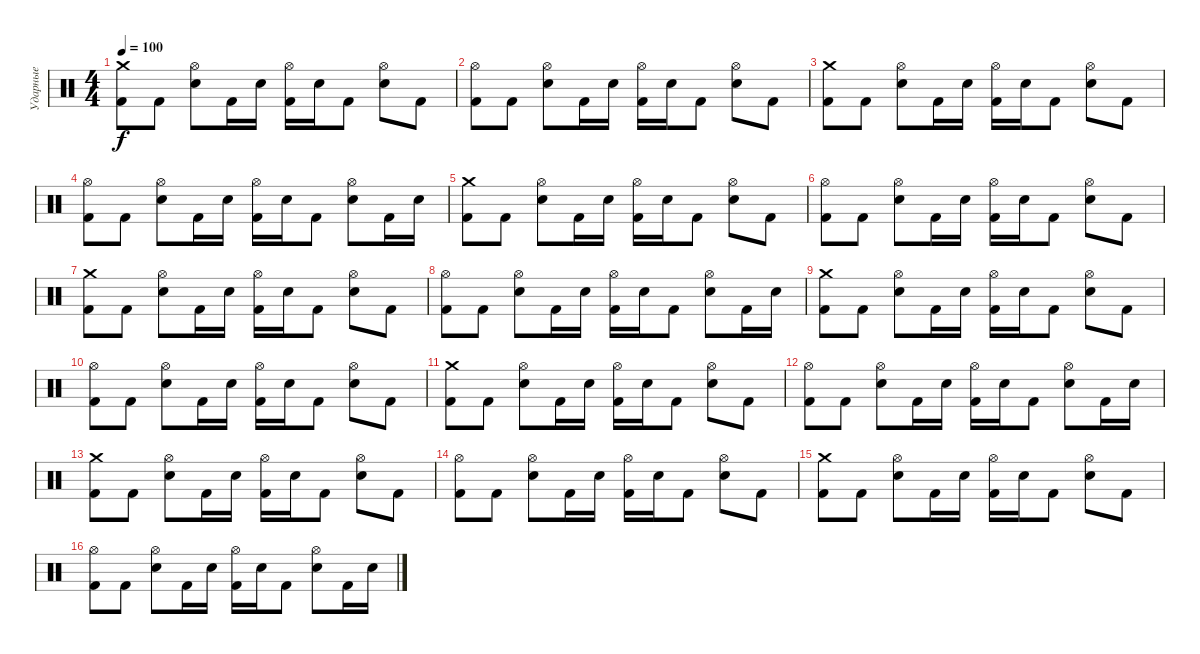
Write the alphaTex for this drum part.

\track ("Ударные" "Ударные") {instrument percussion}
\staff {score}
\articulation defaults
\ts (4 4)
\tempo 100
\clef neutral
\ks c
("Crash medium (hit)" "Kick (hit) 2").8{dy f} "Kick (hit) 2".8 ("Hi-Hat (open)" "Electric Snare (hit)").8 "Kick (hit) 2".16 "Electric Snare (hit)".16 ("Hi-Hat (open)" "Kick (hit) 2").16 "Electric Snare (hit)".16 "Kick (hit) 2".8 ("Hi-Hat (open)" "Electric Snare (hit)").8 "Kick (hit) 2".8 |
("Hi-Hat (open)" "Kick (hit) 2").8 "Kick (hit) 2".8 ("Hi-Hat (open)" "Electric Snare (hit)").8 "Kick (hit) 2".16 "Electric Snare (hit)".16 ("Hi-Hat (open)" "Kick (hit) 2").16 "Electric Snare (hit)".16 "Kick (hit) 2".8 ("Hi-Hat (open)" "Electric Snare (hit)").8 "Kick (hit) 2".8 |
("Crash medium (hit)" "Kick (hit) 2").8 "Kick (hit) 2".8 ("Hi-Hat (open)" "Electric Snare (hit)").8 "Kick (hit) 2".16 "Electric Snare (hit)".16 ("Hi-Hat (open)" "Kick (hit) 2").16 "Electric Snare (hit)".16 "Kick (hit) 2".8 ("Hi-Hat (open)" "Electric Snare (hit)").8 "Kick (hit) 2".8 |
("Hi-Hat (open)" "Kick (hit) 2").8 "Kick (hit) 2".8 ("Hi-Hat (open)" "Electric Snare (hit)").8 "Kick (hit) 2".16 "Electric Snare (hit)".16 ("Hi-Hat (open)" "Kick (hit) 2").16 "Electric Snare (hit)".16 "Kick (hit) 2".8 ("Hi-Hat (open)" "Electric Snare (hit)").8 "Kick (hit) 2".16 "Electric Snare (hit)".16 |
("Crash medium (hit)" "Kick (hit) 2").8 "Kick (hit) 2".8 ("Hi-Hat (open)" "Electric Snare (hit)").8 "Kick (hit) 2".16 "Electric Snare (hit)".16 ("Hi-Hat (open)" "Kick (hit) 2").16 "Electric Snare (hit)".16 "Kick (hit) 2".8 ("Hi-Hat (open)" "Electric Snare (hit)").8 "Kick (hit) 2".8 |
("Hi-Hat (open)" "Kick (hit) 2").8 "Kick (hit) 2".8 ("Hi-Hat (open)" "Electric Snare (hit)").8 "Kick (hit) 2".16 "Electric Snare (hit)".16 ("Hi-Hat (open)" "Kick (hit) 2").16 "Electric Snare (hit)".16 "Kick (hit) 2".8 ("Hi-Hat (open)" "Electric Snare (hit)").8 "Kick (hit) 2".8 |
("Crash medium (hit)" "Kick (hit) 2").8 "Kick (hit) 2".8 ("Hi-Hat (open)" "Electric Snare (hit)").8 "Kick (hit) 2".16 "Electric Snare (hit)".16 ("Hi-Hat (open)" "Kick (hit) 2").16 "Electric Snare (hit)".16 "Kick (hit) 2".8 ("Hi-Hat (open)" "Electric Snare (hit)").8 "Kick (hit) 2".8 |
("Hi-Hat (open)" "Kick (hit) 2").8 "Kick (hit) 2".8 ("Hi-Hat (open)" "Electric Snare (hit)").8 "Kick (hit) 2".16 "Electric Snare (hit)".16 ("Hi-Hat (open)" "Kick (hit) 2").16 "Electric Snare (hit)".16 "Kick (hit) 2".8 ("Hi-Hat (open)" "Electric Snare (hit)").8 "Kick (hit) 2".16 "Electric Snare (hit)".16 |
("Crash medium (hit)" "Kick (hit) 2").8 "Kick (hit) 2".8 ("Hi-Hat (open)" "Electric Snare (hit)").8 "Kick (hit) 2".16 "Electric Snare (hit)".16 ("Hi-Hat (open)" "Kick (hit) 2").16 "Electric Snare (hit)".16 "Kick (hit) 2".8 ("Hi-Hat (open)" "Electric Snare (hit)").8 "Kick (hit) 2".8 |
("Hi-Hat (open)" "Kick (hit) 2").8 "Kick (hit) 2".8 ("Hi-Hat (open)" "Electric Snare (hit)").8 "Kick (hit) 2".16 "Electric Snare (hit)".16 ("Hi-Hat (open)" "Kick (hit) 2").16 "Electric Snare (hit)".16 "Kick (hit) 2".8 ("Hi-Hat (open)" "Electric Snare (hit)").8 "Kick (hit) 2".8 |
("Crash medium (hit)" "Kick (hit) 2").8 "Kick (hit) 2".8 ("Hi-Hat (open)" "Electric Snare (hit)").8 "Kick (hit) 2".16 "Electric Snare (hit)".16 ("Hi-Hat (open)" "Kick (hit) 2").16 "Electric Snare (hit)".16 "Kick (hit) 2".8 ("Hi-Hat (open)" "Electric Snare (hit)").8 "Kick (hit) 2".8 |
("Hi-Hat (open)" "Kick (hit) 2").8 "Kick (hit) 2".8 ("Hi-Hat (open)" "Electric Snare (hit)").8 "Kick (hit) 2".16 "Electric Snare (hit)".16 ("Hi-Hat (open)" "Kick (hit) 2").16 "Electric Snare (hit)".16 "Kick (hit) 2".8 ("Hi-Hat (open)" "Electric Snare (hit)").8 "Kick (hit) 2".16 "Electric Snare (hit)".16 |
("Crash medium (hit)" "Kick (hit) 2").8 "Kick (hit) 2".8 ("Hi-Hat (open)" "Electric Snare (hit)").8 "Kick (hit) 2".16 "Electric Snare (hit)".16 ("Hi-Hat (open)" "Kick (hit) 2").16 "Electric Snare (hit)".16 "Kick (hit) 2".8 ("Hi-Hat (open)" "Electric Snare (hit)").8 "Kick (hit) 2".8 |
("Hi-Hat (open)" "Kick (hit) 2").8 "Kick (hit) 2".8 ("Hi-Hat (open)" "Electric Snare (hit)").8 "Kick (hit) 2".16 "Electric Snare (hit)".16 ("Hi-Hat (open)" "Kick (hit) 2").16 "Electric Snare (hit)".16 "Kick (hit) 2".8 ("Hi-Hat (open)" "Electric Snare (hit)").8 "Kick (hit) 2".8 |
("Crash medium (hit)" "Kick (hit) 2").8 "Kick (hit) 2".8 ("Hi-Hat (open)" "Electric Snare (hit)").8 "Kick (hit) 2".16 "Electric Snare (hit)".16 ("Hi-Hat (open)" "Kick (hit) 2").16 "Electric Snare (hit)".16 "Kick (hit) 2".8 ("Hi-Hat (open)" "Electric Snare (hit)").8 "Kick (hit) 2".8 |
("Hi-Hat (open)" "Kick (hit) 2").8 "Kick (hit) 2".8 ("Hi-Hat (open)" "Electric Snare (hit)").8 "Kick (hit) 2".16 "Electric Snare (hit)".16 ("Hi-Hat (open)" "Kick (hit) 2").16 "Electric Snare (hit)".16 "Kick (hit) 2".8 ("Hi-Hat (open)" "Electric Snare (hit)").8 "Kick (hit) 2".16 "Electric Snare (hit)".16
